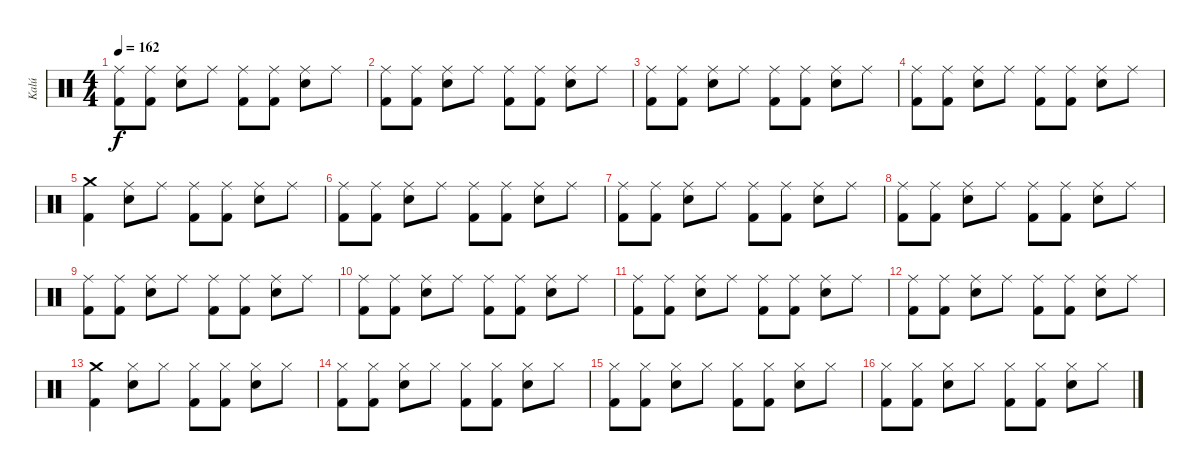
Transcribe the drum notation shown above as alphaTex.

\track ("Kalú" "Kalú") {instrument percussion}
\staff {score}
\articulation defaults
\ts (4 4)
\tempo 162
\clef neutral
\ks c
("Ride (middle)" "Kick (hit) 2").8{dy f} ("Ride (middle)" "Kick (hit) 2").8 ("Ride (middle)" "Electric Snare (hit)").8 "Ride (middle)".8 ("Ride (middle)" "Kick (hit) 2").8 ("Ride (middle)" "Kick (hit) 2").8 ("Ride (middle)" "Electric Snare (hit)").8 "Ride (middle)".8 |
("Ride (middle)" "Kick (hit) 2").8 ("Ride (middle)" "Kick (hit) 2").8 ("Ride (middle)" "Electric Snare (hit)").8 "Ride (middle)".8 ("Ride (middle)" "Kick (hit) 2").8 ("Ride (middle)" "Kick (hit) 2").8 ("Ride (middle)" "Electric Snare (hit)").8 "Ride (middle)".8 |
("Ride (middle)" "Kick (hit) 2").8 ("Ride (middle)" "Kick (hit) 2").8 ("Ride (middle)" "Electric Snare (hit)").8 "Ride (middle)".8 ("Ride (middle)" "Kick (hit) 2").8 ("Ride (middle)" "Kick (hit) 2").8 ("Ride (middle)" "Electric Snare (hit)").8 "Ride (middle)".8 |
("Ride (middle)" "Kick (hit) 2").8 ("Ride (middle)" "Kick (hit) 2").8 ("Ride (middle)" "Electric Snare (hit)").8 "Ride (middle)".8 ("Ride (middle)" "Kick (hit) 2").8 ("Ride (middle)" "Kick (hit) 2").8 ("Ride (middle)" "Electric Snare (hit)").8 "Ride (middle)".8 |
("Crash medium (hit)" "Kick (hit) 2").4 ("Ride (middle)" "Electric Snare (hit)").8 "Ride (middle)".8 ("Ride (middle)" "Kick (hit) 2").8 ("Ride (middle)" "Kick (hit) 2").8 ("Ride (middle)" "Electric Snare (hit)").8 "Ride (middle)".8 |
("Ride (middle)" "Kick (hit) 2").8 ("Ride (middle)" "Kick (hit) 2").8 ("Ride (middle)" "Electric Snare (hit)").8 "Ride (middle)".8 ("Ride (middle)" "Kick (hit) 2").8 ("Ride (middle)" "Kick (hit) 2").8 ("Ride (middle)" "Electric Snare (hit)").8 "Ride (middle)".8 |
("Ride (middle)" "Kick (hit) 2").8 ("Ride (middle)" "Kick (hit) 2").8 ("Ride (middle)" "Electric Snare (hit)").8 "Ride (middle)".8 ("Ride (middle)" "Kick (hit) 2").8 ("Ride (middle)" "Kick (hit) 2").8 ("Ride (middle)" "Electric Snare (hit)").8 "Ride (middle)".8 |
("Ride (middle)" "Kick (hit) 2").8 ("Ride (middle)" "Kick (hit) 2").8 ("Ride (middle)" "Electric Snare (hit)").8 "Ride (middle)".8 ("Ride (middle)" "Kick (hit) 2").8 ("Ride (middle)" "Kick (hit) 2").8 ("Ride (middle)" "Electric Snare (hit)").8 "Ride (middle)".8 |
("Ride (middle)" "Kick (hit) 2").8 ("Ride (middle)" "Kick (hit) 2").8 ("Ride (middle)" "Electric Snare (hit)").8 "Ride (middle)".8 ("Ride (middle)" "Kick (hit) 2").8 ("Ride (middle)" "Kick (hit) 2").8 ("Ride (middle)" "Electric Snare (hit)").8 "Ride (middle)".8 |
("Ride (middle)" "Kick (hit) 2").8 ("Ride (middle)" "Kick (hit) 2").8 ("Ride (middle)" "Electric Snare (hit)").8 "Ride (middle)".8 ("Ride (middle)" "Kick (hit) 2").8 ("Ride (middle)" "Kick (hit) 2").8 ("Ride (middle)" "Electric Snare (hit)").8 "Ride (middle)".8 |
("Ride (middle)" "Kick (hit) 2").8 ("Ride (middle)" "Kick (hit) 2").8 ("Ride (middle)" "Electric Snare (hit)").8 "Ride (middle)".8 ("Ride (middle)" "Kick (hit) 2").8 ("Ride (middle)" "Kick (hit) 2").8 ("Ride (middle)" "Electric Snare (hit)").8 "Ride (middle)".8 |
("Ride (middle)" "Kick (hit) 2").8 ("Ride (middle)" "Kick (hit) 2").8 ("Ride (middle)" "Electric Snare (hit)").8 "Ride (middle)".8 ("Ride (middle)" "Kick (hit) 2").8 ("Ride (middle)" "Kick (hit) 2").8 ("Ride (middle)" "Electric Snare (hit)").8 "Ride (middle)".8 |
("Crash medium (hit)" "Kick (hit) 2").4 ("Hi-Hat (closed)" "Electric Snare (hit)").8 "Hi-Hat (closed)".8 ("Hi-Hat (closed)" "Kick (hit) 2").8 ("Hi-Hat (closed)" "Kick (hit) 2").8 ("Hi-Hat (closed)" "Electric Snare (hit)").8 "Hi-Hat (closed)".8 |
("Hi-Hat (closed)" "Kick (hit) 2").8 ("Hi-Hat (closed)" "Kick (hit) 2").8 ("Hi-Hat (closed)" "Electric Snare (hit)").8 "Hi-Hat (closed)".8 ("Hi-Hat (closed)" "Kick (hit) 2").8 ("Hi-Hat (closed)" "Kick (hit) 2").8 ("Hi-Hat (closed)" "Electric Snare (hit)").8 "Hi-Hat (closed)".8 |
("Hi-Hat (closed)" "Kick (hit) 2").8 ("Hi-Hat (closed)" "Kick (hit) 2").8 ("Hi-Hat (closed)" "Electric Snare (hit)").8 "Hi-Hat (closed)".8 ("Hi-Hat (closed)" "Kick (hit) 2").8 ("Hi-Hat (closed)" "Kick (hit) 2").8 ("Hi-Hat (closed)" "Electric Snare (hit)").8 "Hi-Hat (closed)".8 |
("Hi-Hat (closed)" "Kick (hit) 2").8 ("Hi-Hat (closed)" "Kick (hit) 2").8 ("Hi-Hat (closed)" "Electric Snare (hit)").8 "Hi-Hat (closed)".8 ("Hi-Hat (closed)" "Kick (hit) 2").8 ("Hi-Hat (closed)" "Kick (hit) 2").8 ("Hi-Hat (closed)" "Electric Snare (hit)").8 "Hi-Hat (closed)".8
